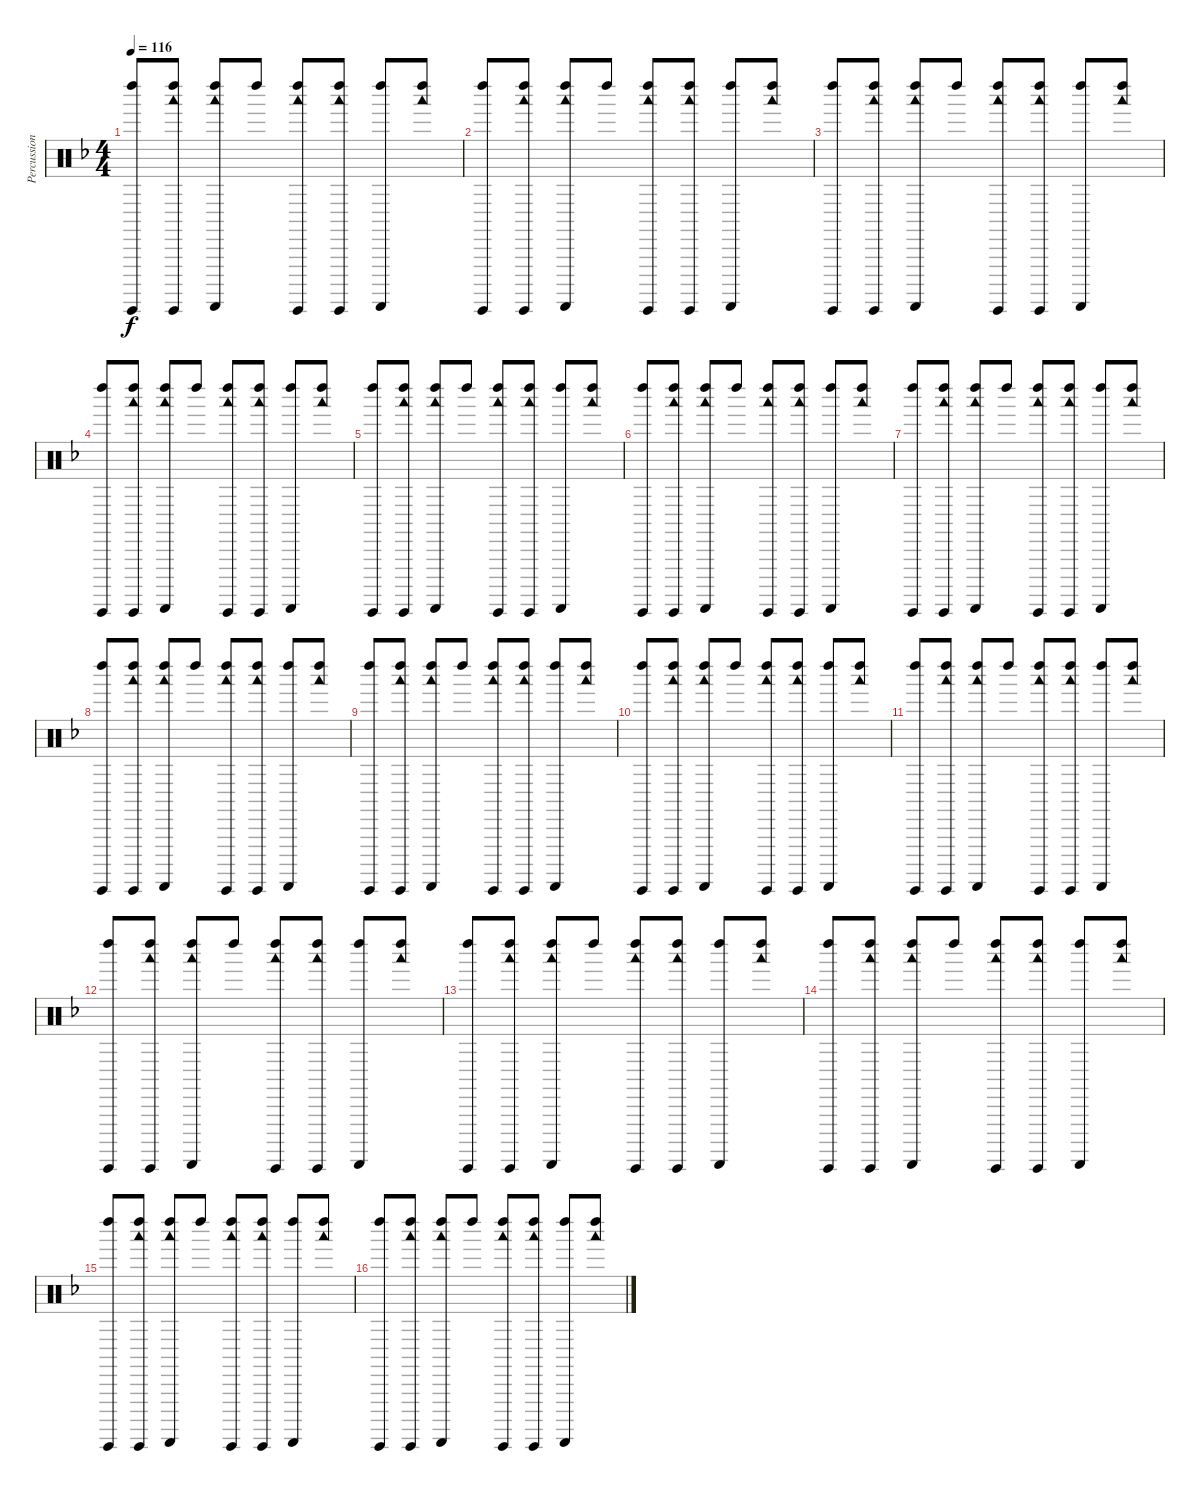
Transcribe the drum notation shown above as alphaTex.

\track ("Percussions" "Percussion") {instrument percussion}
\staff {score}
\articulation defaults
\ts (4 4)
\tempo 116
\clef neutral
\ks dminor
("Guiro (hit)" "Left Maraca (hit)").8{dy f} ("Guiro (hit)" "Left Maraca (hit)" "Woodblock low (hit)").8 ("Guiro (scrap-return)" "Left Maraca (hit)" "Woodblock low (hit)").8 "Left Maraca (hit)".8 ("Guiro (hit)" "Left Maraca (hit)" "Woodblock low (hit)").8 ("Guiro (hit)" "Left Maraca (hit)" "Woodblock low (hit)").8 ("Guiro (scrap-return)" "Left Maraca (hit)").8 ("Left Maraca (hit)" "Woodblock low (hit)").8 |
("Guiro (hit)" "Left Maraca (hit)").8 ("Guiro (hit)" "Left Maraca (hit)" "Woodblock low (hit)").8 ("Guiro (scrap-return)" "Left Maraca (hit)" "Woodblock low (hit)").8 "Left Maraca (hit)".8 ("Guiro (hit)" "Left Maraca (hit)" "Woodblock low (hit)").8 ("Guiro (hit)" "Left Maraca (hit)" "Woodblock low (hit)").8 ("Guiro (scrap-return)" "Left Maraca (hit)").8 ("Left Maraca (hit)" "Woodblock low (hit)").8 |
("Guiro (hit)" "Left Maraca (hit)").8 ("Guiro (hit)" "Left Maraca (hit)" "Woodblock low (hit)").8 ("Guiro (scrap-return)" "Left Maraca (hit)" "Woodblock low (hit)").8 "Left Maraca (hit)".8 ("Guiro (hit)" "Left Maraca (hit)" "Woodblock low (hit)").8 ("Guiro (hit)" "Left Maraca (hit)" "Woodblock low (hit)").8 ("Guiro (scrap-return)" "Left Maraca (hit)").8 ("Left Maraca (hit)" "Woodblock low (hit)").8 |
("Guiro (hit)" "Left Maraca (hit)").8 ("Guiro (hit)" "Left Maraca (hit)" "Woodblock low (hit)").8 ("Guiro (scrap-return)" "Left Maraca (hit)" "Woodblock low (hit)").8 "Left Maraca (hit)".8 ("Guiro (hit)" "Left Maraca (hit)" "Woodblock low (hit)").8 ("Guiro (hit)" "Left Maraca (hit)" "Woodblock low (hit)").8 ("Guiro (scrap-return)" "Left Maraca (hit)").8 ("Left Maraca (hit)" "Woodblock low (hit)").8 |
("Guiro (hit)" "Left Maraca (hit)").8 ("Guiro (hit)" "Left Maraca (hit)" "Woodblock low (hit)").8 ("Guiro (scrap-return)" "Left Maraca (hit)" "Woodblock low (hit)").8 "Left Maraca (hit)".8 ("Guiro (hit)" "Left Maraca (hit)" "Woodblock low (hit)").8 ("Guiro (hit)" "Left Maraca (hit)" "Woodblock low (hit)").8 ("Guiro (scrap-return)" "Left Maraca (hit)").8 ("Left Maraca (hit)" "Woodblock low (hit)").8 |
("Guiro (hit)" "Left Maraca (hit)").8 ("Guiro (hit)" "Left Maraca (hit)" "Woodblock low (hit)").8 ("Guiro (scrap-return)" "Left Maraca (hit)" "Woodblock low (hit)").8 "Left Maraca (hit)".8 ("Guiro (hit)" "Left Maraca (hit)" "Woodblock low (hit)").8 ("Guiro (hit)" "Left Maraca (hit)" "Woodblock low (hit)").8 ("Guiro (scrap-return)" "Left Maraca (hit)").8 ("Left Maraca (hit)" "Woodblock low (hit)").8 |
("Guiro (hit)" "Left Maraca (hit)").8 ("Guiro (hit)" "Left Maraca (hit)" "Woodblock low (hit)").8 ("Guiro (scrap-return)" "Left Maraca (hit)" "Woodblock low (hit)").8 "Left Maraca (hit)".8 ("Guiro (hit)" "Left Maraca (hit)" "Woodblock low (hit)").8 ("Guiro (hit)" "Left Maraca (hit)" "Woodblock low (hit)").8 ("Guiro (scrap-return)" "Left Maraca (hit)").8 ("Left Maraca (hit)" "Woodblock low (hit)").8 |
("Guiro (hit)" "Left Maraca (hit)").8 ("Guiro (hit)" "Left Maraca (hit)" "Woodblock low (hit)").8 ("Guiro (scrap-return)" "Left Maraca (hit)" "Woodblock low (hit)").8 "Left Maraca (hit)".8 ("Guiro (hit)" "Left Maraca (hit)" "Woodblock low (hit)").8 ("Guiro (hit)" "Left Maraca (hit)" "Woodblock low (hit)").8 ("Guiro (scrap-return)" "Left Maraca (hit)").8 ("Left Maraca (hit)" "Woodblock low (hit)").8 |
("Guiro (hit)" "Left Maraca (hit)").8 ("Guiro (hit)" "Left Maraca (hit)" "Woodblock low (hit)").8 ("Guiro (scrap-return)" "Left Maraca (hit)" "Woodblock low (hit)").8 "Left Maraca (hit)".8 ("Guiro (hit)" "Left Maraca (hit)" "Woodblock low (hit)").8 ("Guiro (hit)" "Left Maraca (hit)" "Woodblock low (hit)").8 ("Guiro (scrap-return)" "Left Maraca (hit)").8 ("Left Maraca (hit)" "Woodblock low (hit)").8 |
("Guiro (hit)" "Left Maraca (hit)").8 ("Guiro (hit)" "Left Maraca (hit)" "Woodblock low (hit)").8 ("Guiro (scrap-return)" "Left Maraca (hit)" "Woodblock low (hit)").8 "Left Maraca (hit)".8 ("Guiro (hit)" "Left Maraca (hit)" "Woodblock low (hit)").8 ("Guiro (hit)" "Left Maraca (hit)" "Woodblock low (hit)").8 ("Guiro (scrap-return)" "Left Maraca (hit)").8 ("Left Maraca (hit)" "Woodblock low (hit)").8 |
("Guiro (hit)" "Left Maraca (hit)").8 ("Guiro (hit)" "Left Maraca (hit)" "Woodblock low (hit)").8 ("Guiro (scrap-return)" "Left Maraca (hit)" "Woodblock low (hit)").8 "Left Maraca (hit)".8 ("Guiro (hit)" "Left Maraca (hit)" "Woodblock low (hit)").8 ("Guiro (hit)" "Left Maraca (hit)" "Woodblock low (hit)").8 ("Guiro (scrap-return)" "Left Maraca (hit)").8 ("Left Maraca (hit)" "Woodblock low (hit)").8 |
("Guiro (hit)" "Left Maraca (hit)").8 ("Guiro (hit)" "Left Maraca (hit)" "Woodblock low (hit)").8 ("Guiro (scrap-return)" "Left Maraca (hit)" "Woodblock low (hit)").8 "Left Maraca (hit)".8 ("Guiro (hit)" "Left Maraca (hit)" "Woodblock low (hit)").8 ("Guiro (hit)" "Left Maraca (hit)" "Woodblock low (hit)").8 ("Guiro (scrap-return)" "Left Maraca (hit)").8 ("Left Maraca (hit)" "Woodblock low (hit)").8 |
("Guiro (hit)" "Left Maraca (hit)").8 ("Guiro (hit)" "Left Maraca (hit)" "Woodblock low (hit)").8 ("Guiro (scrap-return)" "Left Maraca (hit)" "Woodblock low (hit)").8 "Left Maraca (hit)".8 ("Guiro (hit)" "Left Maraca (hit)" "Woodblock low (hit)").8 ("Guiro (hit)" "Left Maraca (hit)" "Woodblock low (hit)").8 ("Guiro (scrap-return)" "Left Maraca (hit)").8 ("Left Maraca (hit)" "Woodblock low (hit)").8 |
("Guiro (hit)" "Left Maraca (hit)").8 ("Guiro (hit)" "Left Maraca (hit)" "Woodblock low (hit)").8 ("Guiro (scrap-return)" "Left Maraca (hit)" "Woodblock low (hit)").8 "Left Maraca (hit)".8 ("Guiro (hit)" "Left Maraca (hit)" "Woodblock low (hit)").8 ("Guiro (hit)" "Left Maraca (hit)" "Woodblock low (hit)").8 ("Guiro (scrap-return)" "Left Maraca (hit)").8 ("Left Maraca (hit)" "Woodblock low (hit)").8 |
("Guiro (hit)" "Left Maraca (hit)").8 ("Guiro (hit)" "Left Maraca (hit)" "Woodblock low (hit)").8 ("Guiro (scrap-return)" "Left Maraca (hit)" "Woodblock low (hit)").8 "Left Maraca (hit)".8 ("Guiro (hit)" "Left Maraca (hit)" "Woodblock low (hit)").8 ("Guiro (hit)" "Left Maraca (hit)" "Woodblock low (hit)").8 ("Guiro (scrap-return)" "Left Maraca (hit)").8 ("Left Maraca (hit)" "Woodblock low (hit)").8 |
("Guiro (hit)" "Left Maraca (hit)").8 ("Guiro (hit)" "Left Maraca (hit)" "Woodblock low (hit)").8 ("Guiro (scrap-return)" "Left Maraca (hit)" "Woodblock low (hit)").8 "Left Maraca (hit)".8 ("Guiro (hit)" "Left Maraca (hit)" "Woodblock low (hit)").8 ("Guiro (hit)" "Left Maraca (hit)" "Woodblock low (hit)").8 ("Guiro (scrap-return)" "Left Maraca (hit)").8 ("Left Maraca (hit)" "Woodblock low (hit)").8
